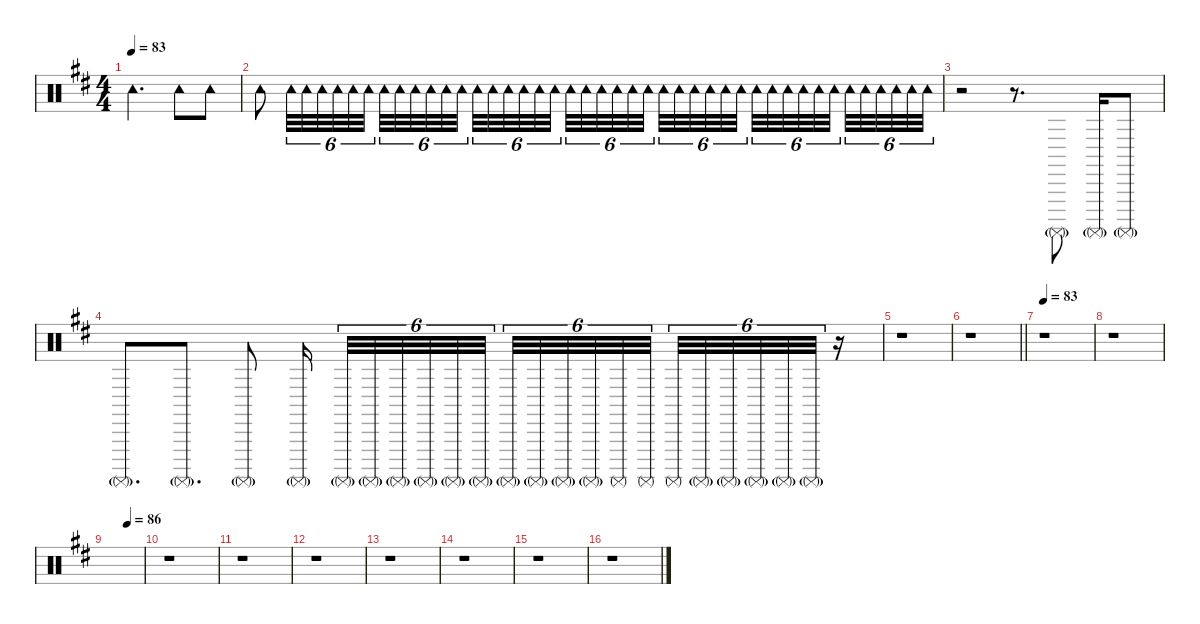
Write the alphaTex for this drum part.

\defaultSystemsLayout 4
\hideDynamics
\bracketExtendMode nobrackets
\singleTrackTrackNamePolicy hidden
\multiTrackTrackNamePolicy hidden
\firstSystemTrackNameMode fullname
\firstSystemTrackNameOrientation horizontal
\otherSystemsTrackNameOrientation horizontal
\track ("Percussions" "drm.") {defaultSystemsLayout 8 instrument percussion}
\staff {score}
\articulation defaults
\ts (4 4)
\tempo 83
\clef neutral
\ks bminor "Tambourine (hit)"{acc forcenatural}.2{d dy f beam Down} "Tambourine (hit)"{acc forcenatural}.8{dy ff beam Down} "Tambourine (hit)"{acc forcenatural}.8{dy f beam Down}
|
"Tambourine (hit)"{acc forcenatural}.8{beam Down} "Tambourine (hit)"{acc forcenatural}.32{tu (6 4) beam Down} "Tambourine (hit)"{acc forcenatural}.32{tu (6 4) dy mf beam Down} "Tambourine (hit)"{acc forcenatural}.32{tu (6 4) dy mp beam Down} "Tambourine (hit)"{acc forcenatural}.32{tu (6 4) dy p beam Down} "Tambourine (hit)"{acc forcenatural}.32{tu (6 4) beam Down} "Tambourine (hit)"{acc forcenatural}.32{tu (6 4) beam Down} "Tambourine (hit)"{acc forcenatural}.32{tu (6 4) beam Down} "Tambourine (hit)"{acc forcenatural}.32{tu (6 4) beam Down} "Tambourine (hit)"{acc forcenatural}.32{tu (6 4) dy mp beam Down} "Tambourine (hit)"{acc forcenatural}.32{tu (6 4) beam Down} "Tambourine (hit)"{acc forcenatural}.32{tu (6 4) beam Down} "Tambourine (hit)"{acc forcenatural}.32{tu (6 4) dy p beam Down} "Tambourine (hit)"{acc forcenatural}.32{tu (6 4) dy f beam Down} "Tambourine (hit)"{acc forcenatural}.32{tu (6 4) dy mf beam Down} "Tambourine (hit)"{acc forcenatural}.32{tu (6 4) dy mp beam Down} "Tambourine (hit)"{acc forcenatural}.32{tu (6 4) dy p beam Down} "Tambourine (hit)"{acc forcenatural}.32{tu (6 4) beam Down} "Tambourine (hit)"{acc forcenatural}.32{tu (6 4) beam Down} "Tambourine (hit)"{acc forcenatural}.32{tu (6 4) beam Down} "Tambourine (hit)"{acc forcenatural}.32{tu (6 4) beam Down} "Tambourine (hit)"{acc forcenatural}.32{tu (6 4) beam Down} "Tambourine (hit)"{acc forcenatural}.32{tu (6 4) beam Down} "Tambourine (hit)"{acc forcenatural}.32{tu (6 4) beam Down} "Tambourine (hit)"{acc forcenatural}.32{tu (6 4) beam Down} "Tambourine (hit)"{acc forcenatural}.32{tu (6 4) dy pp beam Down} "Tambourine (hit)"{acc forcenatural}.32{tu (6 4) beam Down} "Tambourine (hit)"{acc forcenatural}.32{tu (6 4) beam Down} "Tambourine (hit)"{acc forcenatural}.32{tu (6 4) beam Down} "Tambourine (hit)"{acc forcenatural}.32{tu (6 4) beam Down} "Tambourine (hit)"{acc forcenatural}.32{tu (6 4) beam Down} "Tambourine (hit)"{acc forcenatural}.32{tu (6 4) beam Down} "Tambourine (hit)"{acc forcenatural}.32{tu (6 4) beam Down} "Tambourine (hit)"{acc forcenatural}.32{tu (6 4) beam Down} "Tambourine (hit)"{acc forcenatural}.32{tu (6 4) beam Down} "Tambourine (hit)"{acc forcenatural}.32{tu (6 4) beam Down} "Tambourine (hit)"{acc forcenatural}.32{tu (6 4) beam Down} "Tambourine (hit)"{acc forcenatural}.32{tu (6 4) dy ppp beam Down} "Tambourine (hit)"{acc forcenatural}.32{tu (6 4) beam Down} "Tambourine (hit)"{acc forcenatural}.32{tu (6 4) beam Down} "Tambourine (hit)"{acc forcenatural}.32{tu (6 4) beam Down} "Tambourine (hit)"{acc forcenatural}.32{tu (6 4) beam Down} "Tambourine (hit)"{acc forcenatural}.32{tu (6 4) beam Down} |
r.2{beam Down} r.8{d beam Down} "Surdo (mute)"{g acc forcenatural}.8{dy mp beam Up} "Surdo (mute)"{g acc forcenatural}.16{dy mf beam Up} "Surdo (mute)"{g acc forcenatural}.8{dy f beam Up} |
"Surdo (mute)"{g acc forcenatural}.8{d beam Up} "Surdo (mute)"{g acc forcenatural}.8{d dy mf beam Up} "Surdo (mute)"{g acc forcenatural}.8{dy mp beam Up} "Surdo (mute)"{g acc forcenatural}.16{dy mf beam Up} "Surdo (mute)"{g acc forcenatural}.32{tu (6 4) dy mp beam Up} "Surdo (mute)"{g acc forcenatural}.32{tu (6 4) beam Up} "Surdo (mute)"{g acc forcenatural}.32{tu (6 4) dy mf beam Up} "Surdo (mute)"{g acc forcenatural}.32{tu (6 4) beam Up} "Surdo (mute)"{g acc forcenatural}.32{tu (6 4) dy f beam Up} "Surdo (mute)"{g acc forcenatural}.32{tu (6 4) beam Up} "Surdo (mute)"{g acc forcenatural}.32{tu (6 4) beam Up} "Surdo (mute)"{g acc forcenatural}.32{tu (6 4) dy ff beam Up} "Surdo (mute)"{g acc forcenatural}.32{tu (6 4) beam Up} "Surdo (mute)"{g acc forcenatural}.32{tu (6 4) beam Up} "Surdo (mute)"{acc forcenatural}.32{tu (6 4) dy f beam Up} "Surdo (mute)"{acc forcenatural}.32{tu (6 4) beam Up} "Surdo (mute)"{acc forcenatural}.32{tu (6 4) beam Up} "Surdo (mute)"{g acc forcenatural}.32{tu (6 4) dy ff beam Up} "Surdo (mute)"{g acc forcenatural}.32{tu (6 4) beam Up} "Surdo (mute)"{g acc forcenatural}.32{tu (6 4) dy f beam Up} "Surdo (mute)"{g acc forcenatural}.32{tu (6 4) beam Up} "Surdo (mute)"{g acc forcenatural}.32{tu (6 4) dy mf beam Up} r.16{beam Up} |
r.1{beam Down} |
\barLineRight lightlight
r.1{beam Down} |
\tempo 83
r.1{beam Down} |
r.1{beam Down} |
\tempo (86 0.5625)
|
r.1{beam Down} |
r.1{beam Down} |
r.1{beam Down} |
r.1{beam Down} |
r.1{beam Down} |
r.1{beam Down} |
r.1{beam Down}
